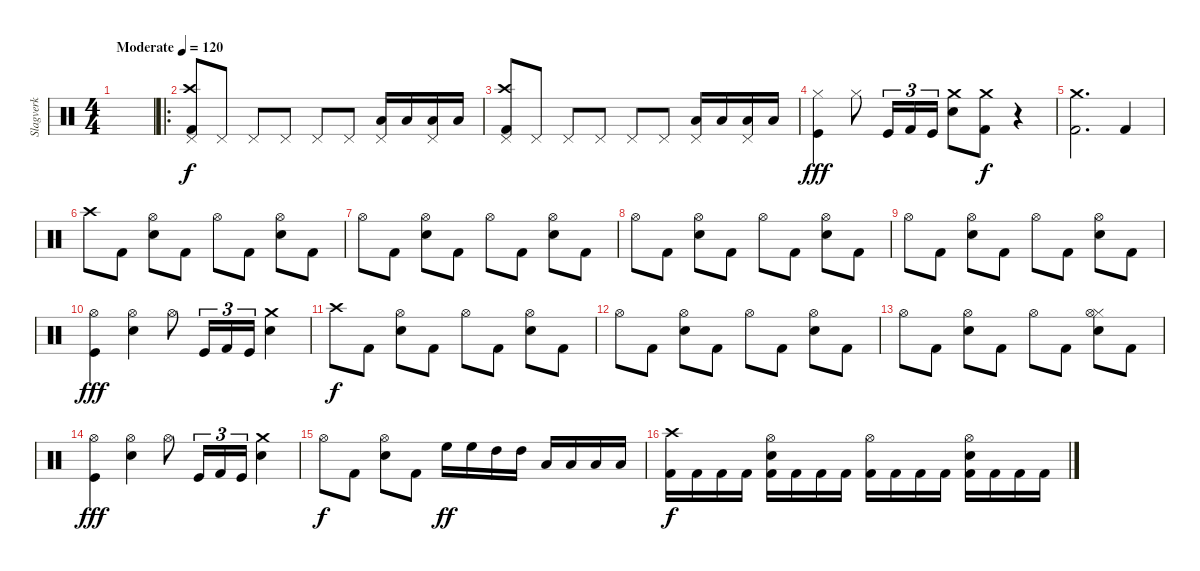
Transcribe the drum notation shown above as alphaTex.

\track ("Slagverk" "Slagverk") {instrument percussion}
\staff {score}
\articulation defaults
\ts (4 4)
\tempo (120 "Moderate")
\clef neutral
\ks c
|
\ro
("Kick (hit) 2" "Crash high (hit)" "Pedal Hi-Hat (hit)").8 "Pedal Hi-Hat (hit)".8 "Pedal Hi-Hat (hit)".8 "Pedal Hi-Hat (hit)".8 "Pedal Hi-Hat (hit)".8 "Pedal Hi-Hat (hit)".8 ("Low Tom (hit)" "Pedal Hi-Hat (hit)").16 "Low Tom (hit)".16 ("Low Floor Tom (hit)" "Pedal Hi-Hat (hit)").16 "Low Floor Tom (hit)".16 |
("Kick (hit) 2" "Crash high (hit)" "Pedal Hi-Hat (hit)").8 "Pedal Hi-Hat (hit)".8 "Pedal Hi-Hat (hit)".8 "Pedal Hi-Hat (hit)".8 "Pedal Hi-Hat (hit)".8 "Pedal Hi-Hat (hit)".8 ("Low Tom (hit)" "Pedal Hi-Hat (hit)").16 "Low Tom (hit)".16 ("Low Floor Tom (hit)" "Pedal Hi-Hat (hit)").16 "Low Floor Tom (hit)".16 |
("Kick (hit)" "Hi-Hat (closed)").4{dy fff} "Hi-Hat (closed)".8 "Kick (hit)".16{tu (3 2)} "Kick (hit) 2".16{tu (3 2)} "Kick (hit)".16{tu (3 2)} ("Snare (hit) 2" "Crash medium (hit)").8 ("Kick (hit) 2" "Crash medium (hit)").8{dy f} r.4 |
("Crash medium (hit)" "Kick (hit) 2").2{d} "Kick (hit) 2".4 |
"Crash high (hit)".8 "Kick (hit) 2".8 ("Hi-Hat (open)" "Snare (hit) 2").8 "Kick (hit) 2".8 "Hi-Hat (open)".8 "Kick (hit) 2".8 ("Hi-Hat (open)" "Snare (hit) 2").8 "Kick (hit) 2".8 |
"Hi-Hat (open)".8 "Kick (hit) 2".8 ("Hi-Hat (open)" "Snare (hit) 2").8 "Kick (hit) 2".8 "Hi-Hat (open)".8 "Kick (hit) 2".8 ("Hi-Hat (open)" "Snare (hit) 2").8 "Kick (hit) 2".8 |
"Hi-Hat (open)".8 "Kick (hit) 2".8 ("Hi-Hat (open)" "Snare (hit) 2").8 "Kick (hit) 2".8 "Hi-Hat (open)".8 "Kick (hit) 2".8 ("Hi-Hat (open)" "Snare (hit) 2").8 "Kick (hit) 2".8 |
"Hi-Hat (open)".8 "Kick (hit) 2".8 ("Hi-Hat (open)" "Snare (hit) 2").8 "Kick (hit) 2".8 "Hi-Hat (open)".8 "Kick (hit) 2".8 ("Hi-Hat (open)" "Snare (hit) 2").8 "Kick (hit) 2".8 |
("Kick (hit)" "Hi-Hat (open)").4{dy fff} ("Snare (hit) 2" "Hi-Hat (open)").4 "Hi-Hat (open)".8 "Kick (hit)".16{tu (3 2)} "Kick (hit) 2".16{tu (3 2)} "Kick (hit)".16{tu (3 2)} ("Snare (hit) 2" "Crash medium (hit)").4 |
"Crash high (hit)".8{dy f} "Kick (hit) 2".8 ("Hi-Hat (open)" "Snare (hit) 2").8 "Kick (hit) 2".8 "Hi-Hat (open)".8 "Kick (hit) 2".8 ("Hi-Hat (open)" "Snare (hit) 2").8 "Kick (hit) 2".8 |
"Hi-Hat (open)".8 "Kick (hit) 2".8 ("Hi-Hat (open)" "Snare (hit) 2").8 "Kick (hit) 2".8 "Hi-Hat (open)".8 "Kick (hit) 2".8 ("Hi-Hat (open)" "Snare (hit) 2").8 "Kick (hit) 2".8 |
"Hi-Hat (open)".8 "Kick (hit) 2".8 ("Hi-Hat (open)" "Snare (hit) 2").8 "Kick (hit) 2".8 "Hi-Hat (open)".8 "Kick (hit) 2".8 ("Hi-Hat (closed)" "Hi-Hat (open)" "Snare (hit) 2").8 "Kick (hit) 2".8 |
("Kick (hit)" "Hi-Hat (open)").4{dy fff} ("Snare (hit) 2" "Hi-Hat (open)").4 "Hi-Hat (open)".8 "Kick (hit)".16{tu (3 2)} "Kick (hit) 2".16{tu (3 2)} "Kick (hit)".16{tu (3 2)} ("Snare (hit) 2" "Crash medium (hit)").4 |
"Hi-Hat (open)".8{dy f} "Kick (hit) 2".8 ("Hi-Hat (open)" "Snare (hit) 2").8 "Kick (hit) 2".8 "High Floor Tom (hit)".16{dy ff} "High Floor Tom (hit)".16 "High Tom (hit)".16 "High Tom (hit)".16 "Low Tom (hit)".16 "Low Tom (hit)".16 "Low Floor Tom (hit)".16 "Low Floor Tom (hit)".16 |
("Crash high (hit)" "Kick (hit) 2").16{dy f} "Kick (hit) 2".16 "Kick (hit) 2".16 "Kick (hit) 2".16 ("Hi-Hat (open)" "Snare (hit) 2" "Kick (hit) 2").16 "Kick (hit) 2".16 "Kick (hit) 2".16 "Kick (hit) 2".16 ("Hi-Hat (open)" "Kick (hit) 2").16 "Kick (hit) 2".16 "Kick (hit) 2".16 "Kick (hit) 2".16 ("Hi-Hat (open)" "Snare (hit) 2" "Kick (hit) 2").16 "Kick (hit) 2".16 "Kick (hit) 2".16 "Kick (hit) 2".16
